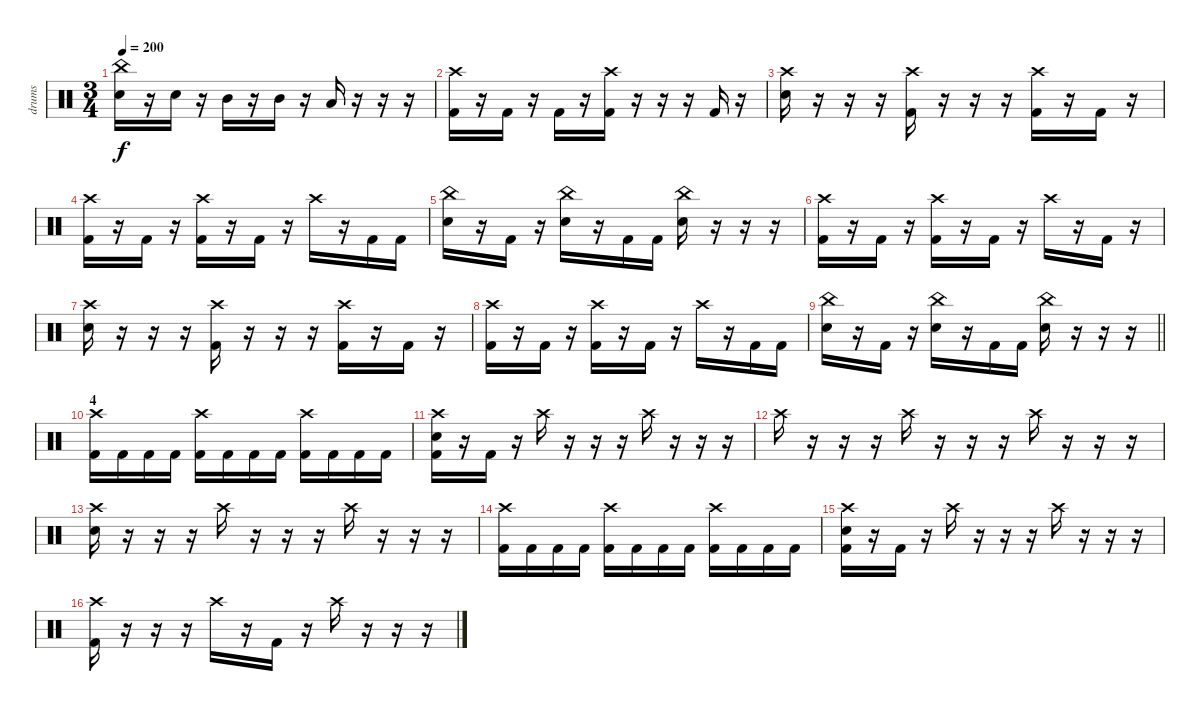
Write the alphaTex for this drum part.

\track ("drums" "drums") {instrument percussion}
\staff {score}
\articulation defaults
\ts (3 4)
\tempo 200
\clef neutral
\ks c
("Electric Snare (hit)" "China (hit)").16{dy f} r.16 "Electric Snare (hit)".16 r.16 "Mid Tom (hit)".16 r.16 "Mid Tom (hit)".16 r.16 "Low Tom (hit)".16 r.16 r.16 r.16 |
("Kick (hit) 2" "Crash high (hit)").16 r.16 "Kick (hit) 2".16 r.16 "Kick (hit) 2".16 r.16 ("Kick (hit) 2" "Crash high (hit)").16 r.16 r.16 r.16 "Kick (hit) 2".16 r.16 |
("Electric Snare (hit)" "Crash high (hit)").16 r.16 r.16 r.16 ("Crash high (hit)" "Kick (hit) 2").16 r.16 r.16 r.16 ("Crash high (hit)" "Kick (hit) 2").16 r.16 "Kick (hit) 2".16 r.16 |
("Kick (hit) 2" "Crash high (hit)").16 r.16 "Kick (hit) 2".16 r.16 ("Kick (hit) 2" "Crash high (hit)").16 r.16 "Kick (hit) 2".16 r.16 "Crash high (hit)".16 r.16 "Kick (hit) 2".16 "Kick (hit) 2".16 |
("Electric Snare (hit)" "China (hit)").16 r.16 "Kick (hit) 2".16 r.16 ("China (hit)" "Electric Snare (hit)").16 r.16 "Kick (hit) 2".16 "Kick (hit) 2".16 ("China (hit)" "Electric Snare (hit)").16 r.16 r.16 r.16 |
("Kick (hit) 2" "Crash high (hit)").16 r.16 "Kick (hit) 2".16 r.16 ("Kick (hit) 2" "Crash high (hit)").16 r.16 "Kick (hit) 2".16 r.16 "Crash high (hit)".16 r.16 "Kick (hit) 2".16 r.16 |
("Electric Snare (hit)" "Crash high (hit)").16 r.16 r.16 r.16 ("Crash high (hit)" "Kick (hit) 2").16 r.16 r.16 r.16 ("Crash high (hit)" "Kick (hit) 2").16 r.16 "Kick (hit) 2".16 r.16 |
("Kick (hit) 2" "Crash high (hit)").16 r.16 "Kick (hit) 2".16 r.16 ("Kick (hit) 2" "Crash high (hit)").16 r.16 "Kick (hit) 2".16 r.16 "Crash high (hit)".16 r.16 "Kick (hit) 2".16 "Kick (hit) 2".16 |
\barLineRight lightlight
("Electric Snare (hit)" "China (hit)").16 r.16 "Kick (hit) 2".16 r.16 ("China (hit)" "Electric Snare (hit)").16 r.16 "Kick (hit) 2".16 "Kick (hit) 2".16 ("China (hit)" "Electric Snare (hit)").16 r.16 r.16 r.16 |
\section ("" "4")
("Crash high (hit)" "Kick (hit) 2").16 "Kick (hit) 2".16 "Kick (hit) 2".16 "Kick (hit) 2".16 ("Crash high (hit)" "Kick (hit) 2").16 "Kick (hit) 2".16 "Kick (hit) 2".16 "Kick (hit) 2".16 ("Kick (hit) 2" "Crash high (hit)").16 "Kick (hit) 2".16 "Kick (hit) 2".16 "Kick (hit) 2".16 |
("Crash high (hit)" "Electric Snare (hit)" "Kick (hit) 2").16 r.16 "Kick (hit) 2".16 r.16 "Crash high (hit)".16 r.16 r.16 r.16 "Crash high (hit)".16 r.16 r.16 r.16 |
"Crash high (hit)".16 r.16 r.16 r.16 "Crash high (hit)".16 r.16 r.16 r.16 "Crash high (hit)".16 r.16 r.16 r.16 |
("Crash high (hit)" "Electric Snare (hit)").16 r.16 r.16 r.16 "Crash high (hit)".16 r.16 r.16 r.16 "Crash high (hit)".16 r.16 r.16 r.16 |
("Crash high (hit)" "Kick (hit) 2").16 "Kick (hit) 2".16 "Kick (hit) 2".16 "Kick (hit) 2".16 ("Crash high (hit)" "Kick (hit) 2").16 "Kick (hit) 2".16 "Kick (hit) 2".16 "Kick (hit) 2".16 ("Kick (hit) 2" "Crash high (hit)").16 "Kick (hit) 2".16 "Kick (hit) 2".16 "Kick (hit) 2".16 |
("Crash high (hit)" "Electric Snare (hit)" "Kick (hit) 2").16 r.16 "Kick (hit) 2".16 r.16 "Crash high (hit)".16 r.16 r.16 r.16 "Crash high (hit)".16 r.16 r.16 r.16 |
("Crash high (hit)" "Kick (hit) 2").16 r.16 r.16 r.16 "Crash high (hit)".16 r.16 "Kick (hit) 2".16 r.16 "Crash high (hit)".16 r.16 r.16 r.16
